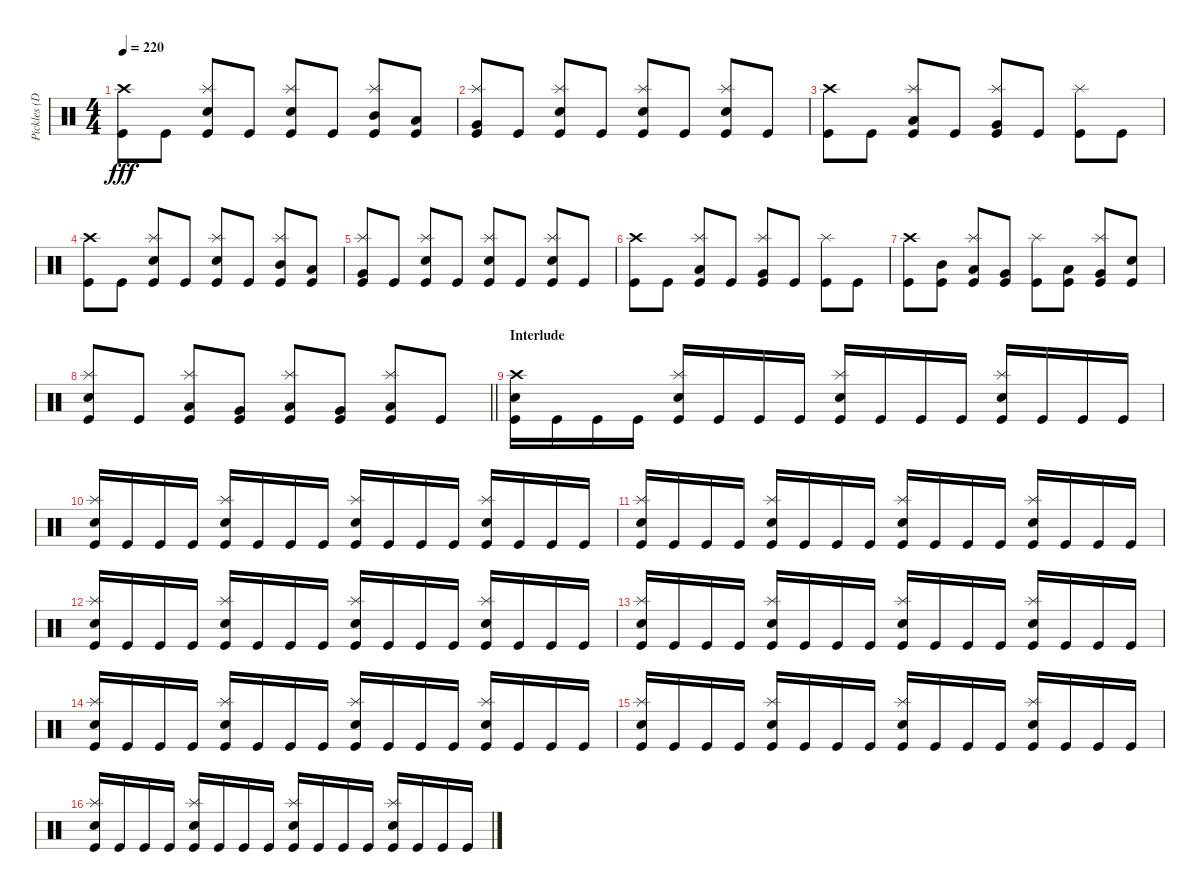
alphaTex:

\track ("Pickles (Drums)" "Pickles (D") {instrument percussion}
\staff {score}
\articulation defaults
\ts (4 4)
\tempo 220
\clef neutral
\ks c
("Crash high (hit)" "Kick (hit)").8{dy fff} "Kick (hit)".8 ("Splash (hit)" "Electric Snare (hit)" "Kick (hit)").8 "Kick (hit)".8 ("Splash (hit)" "Electric Snare (hit)" "Kick (hit)").8 "Kick (hit)".8 ("Splash (hit)" "Mid Tom (hit)" "Kick (hit)").8 ("Low Tom (hit)" "Kick (hit)").8 |
("Splash (hit)" "Very Low Tom (hit)" "Kick (hit)").8 "Kick (hit)".8 ("Splash (hit)" "Electric Snare (hit)" "Kick (hit)").8 "Kick (hit)".8 ("Splash (hit)" "Electric Snare (hit)" "Kick (hit)").8 "Kick (hit)".8 ("Splash (hit)" "Electric Snare (hit)" "Kick (hit)").8 "Kick (hit)".8 |
("Crash high (hit)" "Kick (hit)").8 "Kick (hit)".8 ("Splash (hit)" "Low Tom (hit)" "Kick (hit)").8 "Kick (hit)".8 ("Splash (hit)" "Very Low Tom (hit)" "Kick (hit)").8 "Kick (hit)".8 ("Splash (hit)" "Kick (hit)").8 "Kick (hit)".8 |
("Crash high (hit)" "Kick (hit)").8 "Kick (hit)".8 ("Splash (hit)" "Electric Snare (hit)" "Kick (hit)").8 "Kick (hit)".8 ("Splash (hit)" "Electric Snare (hit)" "Kick (hit)").8 "Kick (hit)".8 ("Splash (hit)" "Mid Tom (hit)" "Kick (hit)").8 ("Low Tom (hit)" "Kick (hit)").8 |
("Splash (hit)" "Very Low Tom (hit)" "Kick (hit)").8 "Kick (hit)".8 ("Splash (hit)" "Electric Snare (hit)" "Kick (hit)").8 "Kick (hit)".8 ("Splash (hit)" "Electric Snare (hit)" "Kick (hit)").8 "Kick (hit)".8 ("Splash (hit)" "Electric Snare (hit)" "Kick (hit)").8 "Kick (hit)".8 |
("Crash high (hit)" "Kick (hit)").8 "Kick (hit)".8 ("Splash (hit)" "Low Tom (hit)" "Kick (hit)").8 "Kick (hit)".8 ("Splash (hit)" "Very Low Tom (hit)" "Kick (hit)").8 "Kick (hit)".8 ("Splash (hit)" "Kick (hit)").8 "Kick (hit)".8 |
("Crash high (hit)" "Kick (hit)").8 ("Mid Tom (hit)" "Kick (hit)").8 ("Splash (hit)" "Low Tom (hit)" "Kick (hit)").8 ("Very Low Tom (hit)" "Kick (hit)").8 ("Splash (hit)" "Kick (hit)").8 ("Low Tom (hit)" "Kick (hit)").8 ("Splash (hit)" "Very Low Tom (hit)" "Kick (hit)").8 ("Electric Snare (hit)" "Kick (hit)").8 |
\barLineRight lightlight
("Splash (hit)" "Electric Snare (hit)" "Kick (hit)").8 "Kick (hit)".8 ("Splash (hit)" "Low Tom (hit)" "Kick (hit)").8 ("Very Low Tom (hit)" "Kick (hit)").8 ("Splash (hit)" "Low Floor Tom (hit)" "Kick (hit)").8 ("Very Low Tom (hit)" "Kick (hit)").8 ("Splash (hit)" "Low Floor Tom (hit)" "Kick (hit)").8 "Kick (hit)".8 |
\section ("" "Interlude")
("Crash high (hit)" "Electric Snare (hit)" "Kick (hit)").16 "Kick (hit)".16 "Kick (hit)".16 "Kick (hit)".16 ("Splash (hit)" "Electric Snare (hit)" "Kick (hit)").16 "Kick (hit)".16 "Kick (hit)".16 "Kick (hit)".16 ("Splash (hit)" "Electric Snare (hit)" "Kick (hit)").16 "Kick (hit)".16 "Kick (hit)".16 "Kick (hit)".16 ("Splash (hit)" "Electric Snare (hit)" "Kick (hit)").16 "Kick (hit)".16 "Kick (hit)".16 "Kick (hit)".16 |
("Splash (hit)" "Electric Snare (hit)" "Kick (hit)").16 "Kick (hit)".16 "Kick (hit)".16 "Kick (hit)".16 ("Splash (hit)" "Electric Snare (hit)" "Kick (hit)").16 "Kick (hit)".16 "Kick (hit)".16 "Kick (hit)".16 ("Splash (hit)" "Electric Snare (hit)" "Kick (hit)").16 "Kick (hit)".16 "Kick (hit)".16 "Kick (hit)".16 ("Splash (hit)" "Electric Snare (hit)" "Kick (hit)").16 "Kick (hit)".16 "Kick (hit)".16 "Kick (hit)".16 |
("Splash (hit)" "Electric Snare (hit)" "Kick (hit)").16 "Kick (hit)".16 "Kick (hit)".16 "Kick (hit)".16 ("Splash (hit)" "Electric Snare (hit)" "Kick (hit)").16 "Kick (hit)".16 "Kick (hit)".16 "Kick (hit)".16 ("Splash (hit)" "Electric Snare (hit)" "Kick (hit)").16 "Kick (hit)".16 "Kick (hit)".16 "Kick (hit)".16 ("Splash (hit)" "Electric Snare (hit)" "Kick (hit)").16 "Kick (hit)".16 "Kick (hit)".16 "Kick (hit)".16 |
("Splash (hit)" "Electric Snare (hit)" "Kick (hit)").16 "Kick (hit)".16 "Kick (hit)".16 "Kick (hit)".16 ("Splash (hit)" "Electric Snare (hit)" "Kick (hit)").16 "Kick (hit)".16 "Kick (hit)".16 "Kick (hit)".16 ("Splash (hit)" "Electric Snare (hit)" "Kick (hit)").16 "Kick (hit)".16 "Kick (hit)".16 "Kick (hit)".16 ("Splash (hit)" "Electric Snare (hit)" "Kick (hit)").16 "Kick (hit)".16 "Kick (hit)".16 "Kick (hit)".16 |
("Splash (hit)" "Electric Snare (hit)" "Kick (hit)").16 "Kick (hit)".16 "Kick (hit)".16 "Kick (hit)".16 ("Splash (hit)" "Electric Snare (hit)" "Kick (hit)").16 "Kick (hit)".16 "Kick (hit)".16 "Kick (hit)".16 ("Splash (hit)" "Electric Snare (hit)" "Kick (hit)").16 "Kick (hit)".16 "Kick (hit)".16 "Kick (hit)".16 ("Splash (hit)" "Electric Snare (hit)" "Kick (hit)").16 "Kick (hit)".16 "Kick (hit)".16 "Kick (hit)".16 |
("Splash (hit)" "Electric Snare (hit)" "Kick (hit)").16 "Kick (hit)".16 "Kick (hit)".16 "Kick (hit)".16 ("Splash (hit)" "Electric Snare (hit)" "Kick (hit)").16 "Kick (hit)".16 "Kick (hit)".16 "Kick (hit)".16 ("Splash (hit)" "Electric Snare (hit)" "Kick (hit)").16 "Kick (hit)".16 "Kick (hit)".16 "Kick (hit)".16 ("Splash (hit)" "Electric Snare (hit)" "Kick (hit)").16 "Kick (hit)".16 "Kick (hit)".16 "Kick (hit)".16 |
("Splash (hit)" "Electric Snare (hit)" "Kick (hit)").16 "Kick (hit)".16 "Kick (hit)".16 "Kick (hit)".16 ("Splash (hit)" "Electric Snare (hit)" "Kick (hit)").16 "Kick (hit)".16 "Kick (hit)".16 "Kick (hit)".16 ("Splash (hit)" "Electric Snare (hit)" "Kick (hit)").16 "Kick (hit)".16 "Kick (hit)".16 "Kick (hit)".16 ("Splash (hit)" "Electric Snare (hit)" "Kick (hit)").16 "Kick (hit)".16 "Kick (hit)".16 "Kick (hit)".16 |
("Splash (hit)" "Electric Snare (hit)" "Kick (hit)").16 "Kick (hit)".16 "Kick (hit)".16 "Kick (hit)".16 ("Splash (hit)" "Electric Snare (hit)" "Kick (hit)").16 "Kick (hit)".16 "Kick (hit)".16 "Kick (hit)".16 ("Splash (hit)" "Electric Snare (hit)" "Kick (hit)").16 "Kick (hit)".16 "Kick (hit)".16 "Kick (hit)".16 ("Splash (hit)" "Electric Snare (hit)" "Kick (hit)").16 "Kick (hit)".16 "Kick (hit)".16 "Kick (hit)".16
